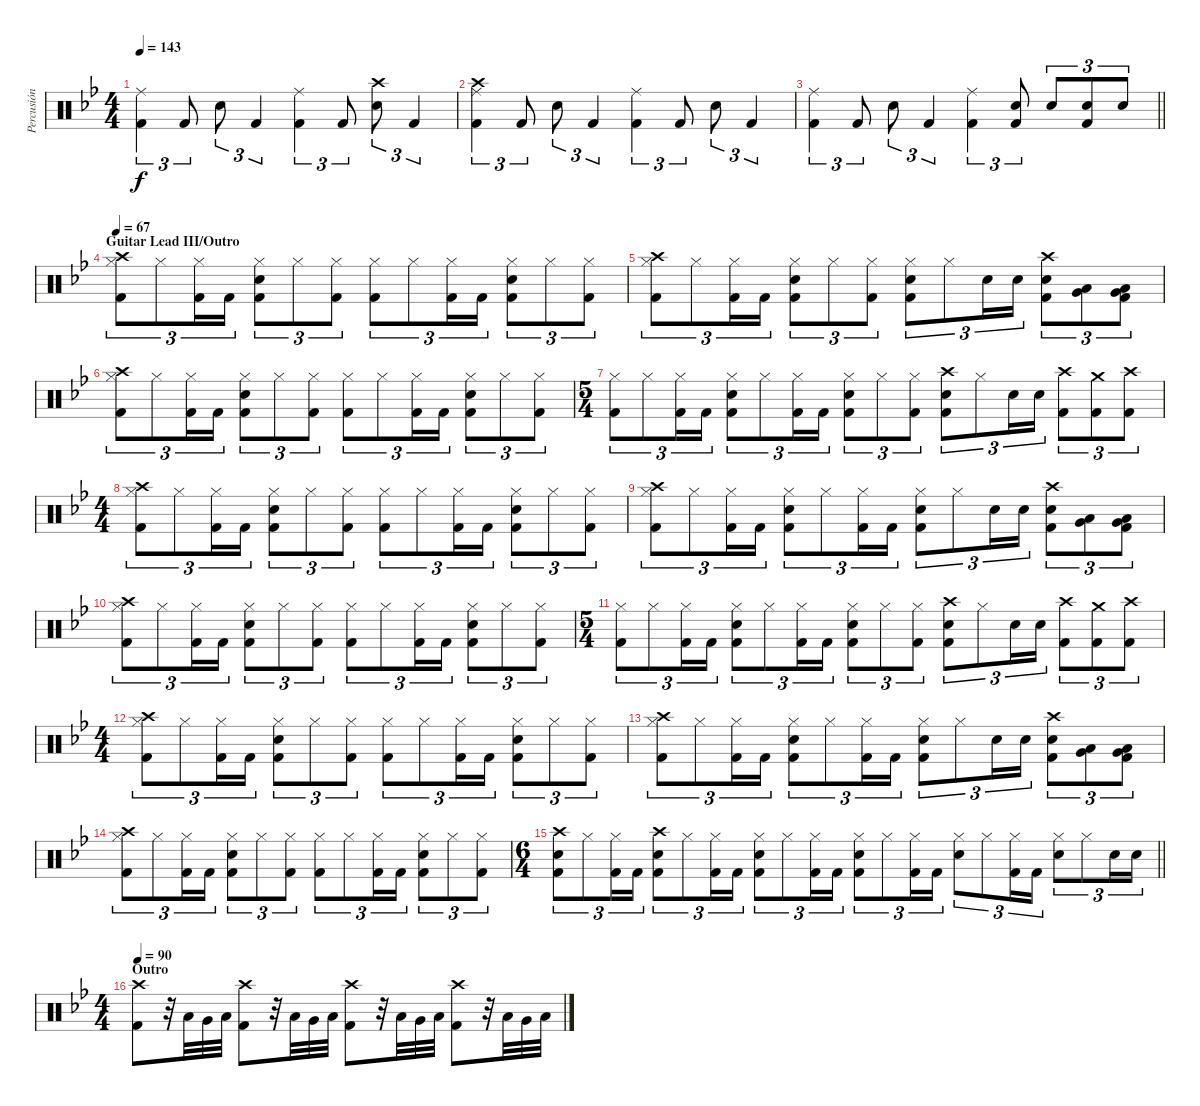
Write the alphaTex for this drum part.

\track ("Percusión" "Percusión") {instrument percussion}
\staff {score}
\articulation defaults
\ts (4 4)
\tempo 143
\clef neutral
\ks bb
("Ride (middle)" "Kick (hit) 2").4{tu (3 2) dy f} "Kick (hit) 2".8{tu (3 2)} "Snare (hit) 2".8{tu (3 2)} "Kick (hit) 2".4{tu (3 2)} ("Ride (middle)" "Kick (hit) 2").4{tu (3 2)} "Kick (hit) 2".8{tu (3 2)} ("Crash high (hit)" "Snare (hit) 2").8{tu (3 2)} "Kick (hit) 2".4{tu (3 2)} |
("Crash high (hit)" "Ride (middle)" "Kick (hit) 2").4{tu (3 2)} "Kick (hit) 2".8{tu (3 2)} "Snare (hit) 2".8{tu (3 2)} "Kick (hit) 2".4{tu (3 2)} ("Ride (middle)" "Kick (hit) 2").4{tu (3 2)} "Kick (hit) 2".8{tu (3 2)} "Snare (hit) 2".8{tu (3 2)} "Kick (hit) 2".4{tu (3 2)} |
\barLineRight lightlight
("Ride (middle)" "Kick (hit) 2").4{tu (3 2)} "Kick (hit) 2".8{tu (3 2)} "Snare (hit) 2".8{tu (3 2)} "Kick (hit) 2".4{tu (3 2)} ("Ride (middle)" "Kick (hit) 2").4{tu (3 2)} ("Snare (hit) 2" "Kick (hit) 2").8{tu (3 2)} "Snare (hit) 2".8{tu (3 2)} ("Snare (hit) 2" "Kick (hit) 2").8{tu (3 2)} "Snare (hit) 2".8{tu (3 2)} |
\section ("" "Guitar Lead III/Outro")
\tempo 67
("Crash high (hit)" "Hi-Hat (closed)" "Kick (hit) 2").8{tu (3 2)} "Hi-Hat (closed)".8{tu (3 2)} ("Hi-Hat (closed)" "Kick (hit) 2").16{tu (3 2)} "Kick (hit) 2".16{tu (3 2)} ("Snare (hit) 2" "Hi-Hat (closed)" "Kick (hit) 2").8{tu (3 2)} "Hi-Hat (closed)".8{tu (3 2)} ("Hi-Hat (closed)" "Kick (hit) 2").8{tu (3 2)} ("Hi-Hat (closed)" "Kick (hit) 2").8{tu (3 2)} "Hi-Hat (closed)".8{tu (3 2)} ("Hi-Hat (closed)" "Kick (hit) 2").16{tu (3 2)} "Kick (hit) 2".16{tu (3 2)} ("Snare (hit) 2" "Hi-Hat (closed)" "Kick (hit) 2").8{tu (3 2)} "Hi-Hat (closed)".8{tu (3 2)} ("Hi-Hat (closed)" "Kick (hit) 2").8{tu (3 2)} |
("Crash high (hit)" "Hi-Hat (closed)" "Kick (hit) 2").8{tu (3 2)} "Hi-Hat (closed)".8{tu (3 2)} ("Hi-Hat (closed)" "Kick (hit) 2").16{tu (3 2)} "Kick (hit) 2".16{tu (3 2)} ("Snare (hit) 2" "Hi-Hat (closed)" "Kick (hit) 2").8{tu (3 2)} "Hi-Hat (closed)".8{tu (3 2)} ("Hi-Hat (closed)" "Kick (hit) 2").8{tu (3 2)} ("Snare (hit) 2" "Hi-Hat (closed)" "Kick (hit) 2").8{tu (3 2)} "Hi-Hat (closed)".8{tu (3 2)} "Electric Snare (hit)".16{tu (3 2)} "Electric Snare (hit)".16{tu (3 2)} ("Crash high (hit)" "Snare (hit) 2" "Kick (hit) 2").8{tu (3 2)} ("Low Tom (hit)" "Very Low Tom (hit)").8{tu (3 2)} ("Low Tom (hit)" "Very Low Tom (hit)" "Kick (hit) 2").8{tu (3 2)} |
("Crash high (hit)" "Hi-Hat (closed)" "Kick (hit) 2").8{tu (3 2)} "Hi-Hat (closed)".8{tu (3 2)} ("Hi-Hat (closed)" "Kick (hit) 2").16{tu (3 2)} "Kick (hit) 2".16{tu (3 2)} ("Snare (hit) 2" "Hi-Hat (closed)" "Kick (hit) 2").8{tu (3 2)} "Hi-Hat (closed)".8{tu (3 2)} ("Hi-Hat (closed)" "Kick (hit) 2").8{tu (3 2)} ("Hi-Hat (closed)" "Kick (hit) 2").8{tu (3 2)} "Hi-Hat (closed)".8{tu (3 2)} ("Hi-Hat (closed)" "Kick (hit) 2").16{tu (3 2)} "Kick (hit) 2".16{tu (3 2)} ("Snare (hit) 2" "Hi-Hat (closed)" "Kick (hit) 2").8{tu (3 2)} "Hi-Hat (closed)".8{tu (3 2)} ("Hi-Hat (closed)" "Kick (hit) 2").8{tu (3 2)} |
\ts (5 4)
("Hi-Hat (closed)" "Kick (hit) 2").8{tu (3 2)} "Hi-Hat (closed)".8{tu (3 2)} ("Hi-Hat (closed)" "Kick (hit) 2").16{tu (3 2)} "Kick (hit) 2".16{tu (3 2)} ("Snare (hit) 2" "Hi-Hat (closed)" "Kick (hit) 2").8{tu (3 2)} "Hi-Hat (closed)".8{tu (3 2)} ("Hi-Hat (closed)" "Kick (hit) 2").16{tu (3 2)} "Kick (hit) 2".16{tu (3 2)} ("Snare (hit) 2" "Hi-Hat (closed)" "Kick (hit) 2").8{tu (3 2)} "Hi-Hat (closed)".8{tu (3 2)} ("Hi-Hat (closed)" "Kick (hit) 2").8{tu (3 2)} ("Crash high (hit)" "Snare (hit) 2" "Kick (hit) 2").8{tu (3 2)} "Hi-Hat (closed)".8{tu (3 2)} "Electric Snare (hit)".16{tu (3 2)} "Electric Snare (hit)".16{tu (3 2)} ("Crash high (hit)" "Kick (hit) 2").8{tu (3 2)} ("Crash medium (hit)" "Kick (hit) 2").8{tu (3 2)} ("Crash high (hit)" "Kick (hit) 2").8{tu (3 2)} |
\ts (4 4)
("Crash high (hit)" "Hi-Hat (closed)" "Kick (hit) 2").8{tu (3 2)} "Hi-Hat (closed)".8{tu (3 2)} ("Hi-Hat (closed)" "Kick (hit) 2").16{tu (3 2)} "Kick (hit) 2".16{tu (3 2)} ("Snare (hit) 2" "Hi-Hat (closed)" "Kick (hit) 2").8{tu (3 2)} "Hi-Hat (closed)".8{tu (3 2)} ("Hi-Hat (closed)" "Kick (hit) 2").8{tu (3 2)} ("Hi-Hat (closed)" "Kick (hit) 2").8{tu (3 2)} "Hi-Hat (closed)".8{tu (3 2)} ("Hi-Hat (closed)" "Kick (hit) 2").16{tu (3 2)} "Kick (hit) 2".16{tu (3 2)} ("Snare (hit) 2" "Hi-Hat (closed)" "Kick (hit) 2").8{tu (3 2)} "Hi-Hat (closed)".8{tu (3 2)} ("Hi-Hat (closed)" "Kick (hit) 2").8{tu (3 2)} |
("Crash high (hit)" "Hi-Hat (closed)" "Kick (hit) 2").8{tu (3 2)} "Hi-Hat (closed)".8{tu (3 2)} ("Hi-Hat (closed)" "Kick (hit) 2").16{tu (3 2)} "Kick (hit) 2".16{tu (3 2)} ("Snare (hit) 2" "Hi-Hat (closed)" "Kick (hit) 2").8{tu (3 2)} "Hi-Hat (closed)".8{tu (3 2)} ("Hi-Hat (closed)" "Kick (hit) 2").16{tu (3 2)} "Kick (hit) 2".16{tu (3 2)} ("Snare (hit) 2" "Hi-Hat (closed)" "Kick (hit) 2").8{tu (3 2)} "Hi-Hat (closed)".8{tu (3 2)} "Electric Snare (hit)".16{tu (3 2)} "Electric Snare (hit)".16{tu (3 2)} ("Crash high (hit)" "Snare (hit) 2" "Kick (hit) 2").8{tu (3 2)} ("Low Tom (hit)" "Very Low Tom (hit)").8{tu (3 2)} ("Low Tom (hit)" "Very Low Tom (hit)" "Kick (hit) 2").8{tu (3 2)} |
("Crash high (hit)" "Hi-Hat (closed)" "Kick (hit) 2").8{tu (3 2)} "Hi-Hat (closed)".8{tu (3 2)} ("Hi-Hat (closed)" "Kick (hit) 2").16{tu (3 2)} "Kick (hit) 2".16{tu (3 2)} ("Snare (hit) 2" "Hi-Hat (closed)" "Kick (hit) 2").8{tu (3 2)} "Hi-Hat (closed)".8{tu (3 2)} ("Hi-Hat (closed)" "Kick (hit) 2").8{tu (3 2)} ("Hi-Hat (closed)" "Kick (hit) 2").8{tu (3 2)} "Hi-Hat (closed)".8{tu (3 2)} ("Hi-Hat (closed)" "Kick (hit) 2").16{tu (3 2)} "Kick (hit) 2".16{tu (3 2)} ("Snare (hit) 2" "Hi-Hat (closed)" "Kick (hit) 2").8{tu (3 2)} "Hi-Hat (closed)".8{tu (3 2)} ("Hi-Hat (closed)" "Kick (hit) 2").8{tu (3 2)} |
\ts (5 4)
("Hi-Hat (closed)" "Kick (hit) 2").8{tu (3 2)} "Hi-Hat (closed)".8{tu (3 2)} ("Hi-Hat (closed)" "Kick (hit) 2").16{tu (3 2)} "Kick (hit) 2".16{tu (3 2)} ("Snare (hit) 2" "Hi-Hat (closed)" "Kick (hit) 2").8{tu (3 2)} "Hi-Hat (closed)".8{tu (3 2)} ("Hi-Hat (closed)" "Kick (hit) 2").16{tu (3 2)} "Kick (hit) 2".16{tu (3 2)} ("Snare (hit) 2" "Hi-Hat (closed)" "Kick (hit) 2").8{tu (3 2)} "Hi-Hat (closed)".8{tu (3 2)} ("Hi-Hat (closed)" "Kick (hit) 2").8{tu (3 2)} ("Crash high (hit)" "Snare (hit) 2" "Kick (hit) 2").8{tu (3 2)} "Hi-Hat (closed)".8{tu (3 2)} "Electric Snare (hit)".16{tu (3 2)} "Electric Snare (hit)".16{tu (3 2)} ("Crash high (hit)" "Kick (hit) 2").8{tu (3 2)} ("Crash medium (hit)" "Kick (hit) 2").8{tu (3 2)} ("Crash high (hit)" "Kick (hit) 2").8{tu (3 2)} |
\ts (4 4)
("Crash high (hit)" "Hi-Hat (closed)" "Kick (hit) 2").8{tu (3 2)} "Hi-Hat (closed)".8{tu (3 2)} ("Hi-Hat (closed)" "Kick (hit) 2").16{tu (3 2)} "Kick (hit) 2".16{tu (3 2)} ("Snare (hit) 2" "Hi-Hat (closed)" "Kick (hit) 2").8{tu (3 2)} "Hi-Hat (closed)".8{tu (3 2)} ("Hi-Hat (closed)" "Kick (hit) 2").8{tu (3 2)} ("Hi-Hat (closed)" "Kick (hit) 2").8{tu (3 2)} "Hi-Hat (closed)".8{tu (3 2)} ("Hi-Hat (closed)" "Kick (hit) 2").16{tu (3 2)} "Kick (hit) 2".16{tu (3 2)} ("Snare (hit) 2" "Hi-Hat (closed)" "Kick (hit) 2").8{tu (3 2)} "Hi-Hat (closed)".8{tu (3 2)} ("Hi-Hat (closed)" "Kick (hit) 2").8{tu (3 2)} |
("Crash high (hit)" "Hi-Hat (closed)" "Kick (hit) 2").8{tu (3 2)} "Hi-Hat (closed)".8{tu (3 2)} ("Hi-Hat (closed)" "Kick (hit) 2").16{tu (3 2)} "Kick (hit) 2".16{tu (3 2)} ("Snare (hit) 2" "Hi-Hat (closed)" "Kick (hit) 2").8{tu (3 2)} "Hi-Hat (closed)".8{tu (3 2)} ("Hi-Hat (closed)" "Kick (hit) 2").16{tu (3 2)} "Kick (hit) 2".16{tu (3 2)} ("Snare (hit) 2" "Hi-Hat (closed)" "Kick (hit) 2").8{tu (3 2)} "Hi-Hat (closed)".8{tu (3 2)} "Electric Snare (hit)".16{tu (3 2)} "Electric Snare (hit)".16{tu (3 2)} ("Crash high (hit)" "Snare (hit) 2" "Kick (hit) 2").8{tu (3 2)} ("Low Tom (hit)" "Very Low Tom (hit)").8{tu (3 2)} ("Low Tom (hit)" "Very Low Tom (hit)" "Kick (hit) 2").8{tu (3 2)} |
("Crash high (hit)" "Hi-Hat (closed)" "Kick (hit) 2").8{tu (3 2)} "Hi-Hat (closed)".8{tu (3 2)} ("Hi-Hat (closed)" "Kick (hit) 2").16{tu (3 2)} "Kick (hit) 2".16{tu (3 2)} ("Snare (hit) 2" "Hi-Hat (closed)" "Kick (hit) 2").8{tu (3 2)} "Hi-Hat (closed)".8{tu (3 2)} ("Hi-Hat (closed)" "Kick (hit) 2").8{tu (3 2)} ("Hi-Hat (closed)" "Kick (hit) 2").8{tu (3 2)} "Hi-Hat (closed)".8{tu (3 2)} ("Hi-Hat (closed)" "Kick (hit) 2").16{tu (3 2)} "Kick (hit) 2".16{tu (3 2)} ("Snare (hit) 2" "Hi-Hat (closed)" "Kick (hit) 2").8{tu (3 2)} "Hi-Hat (closed)".8{tu (3 2)} ("Hi-Hat (closed)" "Kick (hit) 2").8{tu (3 2)} |
\ts (6 4)
\barLineRight lightlight
("Crash high (hit)" "Snare (hit) 2" "Kick (hit) 2").8{tu (3 2)} "Hi-Hat (closed)".8{tu (3 2)} ("Hi-Hat (closed)" "Kick (hit) 2").16{tu (3 2)} "Kick (hit) 2".16{tu (3 2)} ("Crash high (hit)" "Snare (hit) 2" "Kick (hit) 2").8{tu (3 2)} "Hi-Hat (closed)".8{tu (3 2)} ("Hi-Hat (closed)" "Kick (hit) 2").16{tu (3 2)} "Kick (hit) 2".16{tu (3 2)} ("Snare (hit) 2" "Hi-Hat (closed)" "Kick (hit) 2").8{tu (3 2)} "Hi-Hat (closed)".8{tu (3 2)} ("Hi-Hat (closed)" "Kick (hit) 2").16{tu (3 2)} "Kick (hit) 2".16{tu (3 2)} ("Snare (hit) 2" "Hi-Hat (closed)" "Kick (hit) 2").8{tu (3 2)} "Hi-Hat (closed)".8{tu (3 2)} ("Hi-Hat (closed)" "Kick (hit) 2").16{tu (3 2)} "Kick (hit) 2".16{tu (3 2)} ("Snare (hit) 2" "Hi-Hat (closed)").8{tu (3 2)} "Hi-Hat (closed)".8{tu (3 2)} ("Hi-Hat (closed)" "Kick (hit) 2").16{tu (3 2)} "Kick (hit) 2".16{tu (3 2)} ("Snare (hit) 2" "Hi-Hat (closed)").8{tu (3 2)} "Hi-Hat (closed)".8{tu (3 2)} "Electric Snare (hit)".16{tu (3 2)} "Electric Snare (hit)".16{tu (3 2)} |
\ts (4 4)
\section ("" "Outro")
\tempo 90
("Crash high (hit)" "Kick (hit) 2").8 r.32 "Low Tom (hit)".32 "Very Low Tom (hit)".32 "Low Tom (hit)".32 ("Crash high (hit)" "Kick (hit) 2").8 r.32 "Low Tom (hit)".32 "Very Low Tom (hit)".32 "Low Tom (hit)".32 ("Crash high (hit)" "Kick (hit) 2").8 r.32 "Low Tom (hit)".32 "Very Low Tom (hit)".32 "Low Tom (hit)".32 ("Crash high (hit)" "Kick (hit) 2").8 r.32 "Low Tom (hit)".32 "Very Low Tom (hit)".32 "Low Tom (hit)".32
